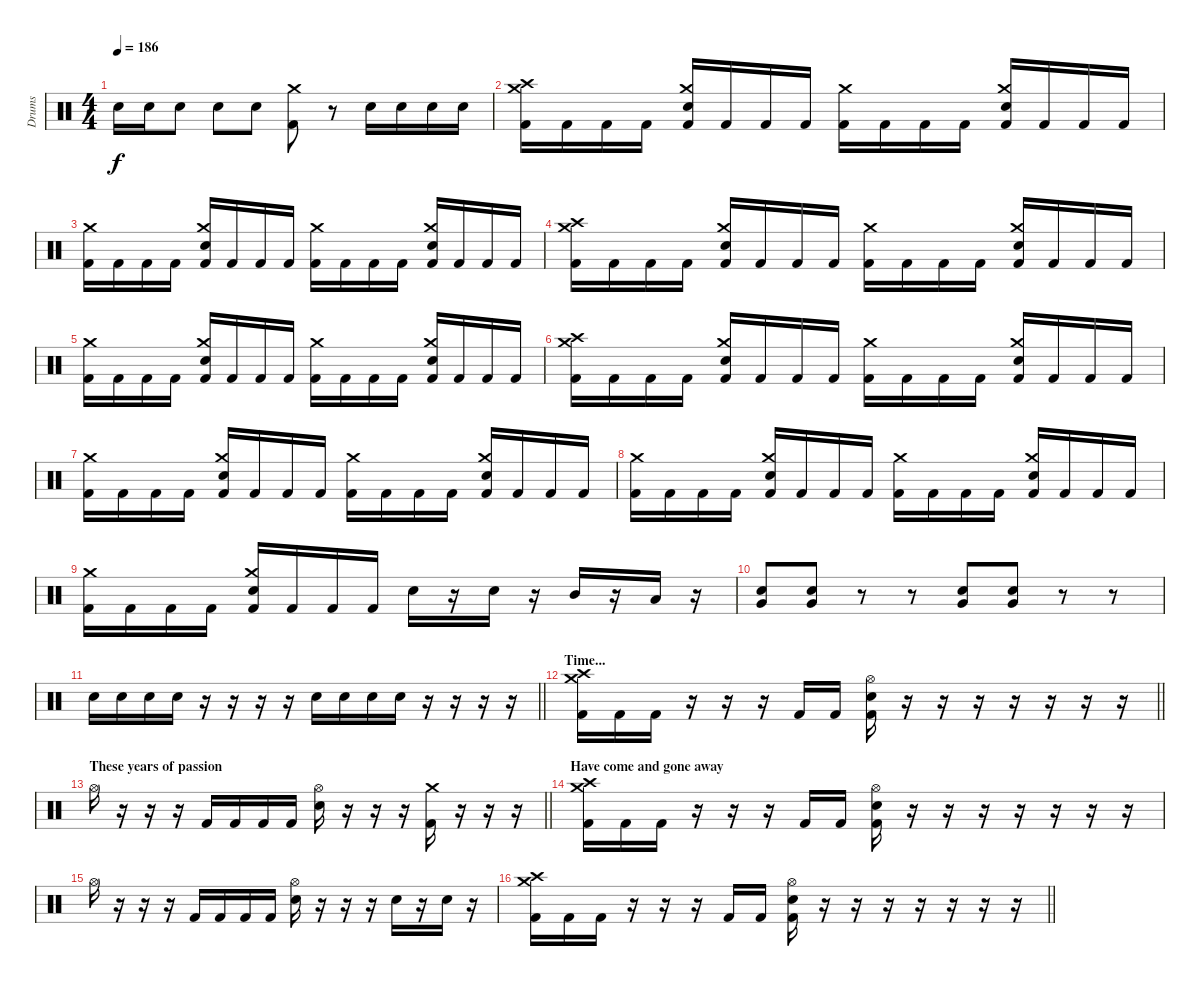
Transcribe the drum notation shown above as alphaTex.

\track ("Drums" "Drums") {instrument percussion}
\staff {score}
\articulation defaults
\ts (4 4)
\tempo 186
\clef neutral
\ks c "Snare (hit) 2".16{dy f} "Snare (hit) 2".16 "Snare (hit) 2".8 "Snare (hit) 2".8 "Snare (hit) 2".8
("Crash medium (hit)" "Kick (hit) 2").8 r.8 "Snare (hit) 2".16 "Snare (hit) 2".16 "Snare (hit) 2".16 "Snare (hit) 2".16 |
("Crash high (hit)" "Crash medium (hit)" "Kick (hit) 2").16 "Kick (hit) 2".16 "Kick (hit) 2".16 "Kick (hit) 2".16 ("Crash medium (hit)" "Snare (hit) 2" "Kick (hit) 2").16 "Kick (hit) 2".16 "Kick (hit) 2".16 "Kick (hit) 2".16 ("Crash medium (hit)" "Kick (hit) 2").16 "Kick (hit) 2".16 "Kick (hit) 2".16 "Kick (hit) 2".16 ("Crash medium (hit)" "Snare (hit) 2" "Kick (hit) 2").16 "Kick (hit) 2".16 "Kick (hit) 2".16 "Kick (hit) 2".16 |
("Crash medium (hit)" "Kick (hit) 2").16 "Kick (hit) 2".16 "Kick (hit) 2".16 "Kick (hit) 2".16 ("Crash medium (hit)" "Snare (hit) 2" "Kick (hit) 2").16 "Kick (hit) 2".16 "Kick (hit) 2".16 "Kick (hit) 2".16 ("Crash medium (hit)" "Kick (hit) 2").16 "Kick (hit) 2".16 "Kick (hit) 2".16 "Kick (hit) 2".16 ("Crash medium (hit)" "Snare (hit) 2" "Kick (hit) 2").16 "Kick (hit) 2".16 "Kick (hit) 2".16 "Kick (hit) 2".16 |
("Crash high (hit)" "Crash medium (hit)" "Kick (hit) 2").16 "Kick (hit) 2".16 "Kick (hit) 2".16 "Kick (hit) 2".16 ("Crash medium (hit)" "Snare (hit) 2" "Kick (hit) 2").16 "Kick (hit) 2".16 "Kick (hit) 2".16 "Kick (hit) 2".16 ("Crash medium (hit)" "Kick (hit) 2").16 "Kick (hit) 2".16 "Kick (hit) 2".16 "Kick (hit) 2".16 ("Crash medium (hit)" "Snare (hit) 2" "Kick (hit) 2").16 "Kick (hit) 2".16 "Kick (hit) 2".16 "Kick (hit) 2".16 |
("Crash medium (hit)" "Kick (hit) 2").16 "Kick (hit) 2".16 "Kick (hit) 2".16 "Kick (hit) 2".16 ("Crash medium (hit)" "Snare (hit) 2" "Kick (hit) 2").16 "Kick (hit) 2".16 "Kick (hit) 2".16 "Kick (hit) 2".16 ("Crash medium (hit)" "Kick (hit) 2").16 "Kick (hit) 2".16 "Kick (hit) 2".16 "Kick (hit) 2".16 ("Crash medium (hit)" "Snare (hit) 2" "Kick (hit) 2").16 "Kick (hit) 2".16 "Kick (hit) 2".16 "Kick (hit) 2".16 |
("Crash high (hit)" "Crash medium (hit)" "Kick (hit) 2").16 "Kick (hit) 2".16 "Kick (hit) 2".16 "Kick (hit) 2".16 ("Crash medium (hit)" "Snare (hit) 2" "Kick (hit) 2").16 "Kick (hit) 2".16 "Kick (hit) 2".16 "Kick (hit) 2".16 ("Crash medium (hit)" "Kick (hit) 2").16 "Kick (hit) 2".16 "Kick (hit) 2".16 "Kick (hit) 2".16 ("Crash medium (hit)" "Snare (hit) 2" "Kick (hit) 2").16 "Kick (hit) 2".16 "Kick (hit) 2".16 "Kick (hit) 2".16 |
("Crash medium (hit)" "Kick (hit) 2").16 "Kick (hit) 2".16 "Kick (hit) 2".16 "Kick (hit) 2".16 ("Crash medium (hit)" "Snare (hit) 2" "Kick (hit) 2").16 "Kick (hit) 2".16 "Kick (hit) 2".16 "Kick (hit) 2".16 ("Crash medium (hit)" "Kick (hit) 2").16 "Kick (hit) 2".16 "Kick (hit) 2".16 "Kick (hit) 2".16 ("Crash medium (hit)" "Snare (hit) 2" "Kick (hit) 2").16 "Kick (hit) 2".16 "Kick (hit) 2".16 "Kick (hit) 2".16 |
("Crash medium (hit)" "Kick (hit) 2").16 "Kick (hit) 2".16 "Kick (hit) 2".16 "Kick (hit) 2".16 ("Crash medium (hit)" "Snare (hit) 2" "Kick (hit) 2").16 "Kick (hit) 2".16 "Kick (hit) 2".16 "Kick (hit) 2".16 ("Crash medium (hit)" "Kick (hit) 2").16 "Kick (hit) 2".16 "Kick (hit) 2".16 "Kick (hit) 2".16 ("Crash medium (hit)" "Snare (hit) 2" "Kick (hit) 2").16 "Kick (hit) 2".16 "Kick (hit) 2".16 "Kick (hit) 2".16 |
("Crash medium (hit)" "Kick (hit) 2").16 "Kick (hit) 2".16 "Kick (hit) 2".16 "Kick (hit) 2".16 ("Crash medium (hit)" "Snare (hit) 2" "Kick (hit) 2").16 "Kick (hit) 2".16 "Kick (hit) 2".16 "Kick (hit) 2".16 "Snare (hit) 2".16 r.16 "Snare (hit) 2".16 r.16 "Mid Tom (hit)".16 r.16 "Low Tom (hit)".16 r.16 |
("Very Low Tom (hit)" "Snare (hit) 2").8 ("Very Low Tom (hit)" "Snare (hit) 2").8 r.8 r.8 ("Very Low Tom (hit)" "Snare (hit) 2").8 ("Very Low Tom (hit)" "Snare (hit) 2").8 r.8 r.8 |
\barLineRight lightlight "Snare (hit) 2".16 "Snare (hit) 2".16 "Snare (hit) 2".16 "Snare (hit) 2".16
r.16 r.16 r.16 r.16 "Snare (hit) 2".16 "Snare (hit) 2".16 "Snare (hit) 2".16 "Snare (hit) 2".16 r.16 r.16 r.16 r.16 |
\section ("" "Time...")
\barLineRight lightlight
("Crash high (hit)" "Crash medium (hit)" "Kick (hit) 2").16 "Kick (hit) 2".16 "Kick (hit) 2".16 r.16 r.16 r.16 "Kick (hit) 2".16 "Kick (hit) 2".16 ("Hi-Hat (open)" "Snare (hit) 2" "Kick (hit) 2").16 r.16 r.16 r.16 r.16 r.16 r.16 r.16 |
\section ("" "These years of passion")
\barLineRight lightlight "Hi-Hat (open)".16
r.16 r.16 r.16 "Kick (hit) 2".16 "Kick (hit) 2".16 "Kick (hit) 2".16 "Kick (hit) 2".16 ("Hi-Hat (open)" "Snare (hit) 2").16 r.16 r.16 r.16 ("Crash medium (hit)" "Kick (hit) 2").16 r.16 r.16 r.16 |
\section ("" "Have come and gone away")
("Crash high (hit)" "Crash medium (hit)" "Kick (hit) 2").16 "Kick (hit) 2".16 "Kick (hit) 2".16 r.16 r.16 r.16 "Kick (hit) 2".16 "Kick (hit) 2".16 ("Hi-Hat (open)" "Snare (hit) 2" "Kick (hit) 2").16 r.16 r.16 r.16 r.16 r.16 r.16 r.16 |
"Hi-Hat (open)".16 r.16 r.16 r.16 "Kick (hit) 2".16 "Kick (hit) 2".16 "Kick (hit) 2".16 "Kick (hit) 2".16 ("Hi-Hat (open)" "Snare (hit) 2").16 r.16 r.16 r.16 "Snare (hit) 2".16 r.16 "Snare (hit) 2".16 r.16 |
\barLineRight lightlight
("Crash high (hit)" "Crash medium (hit)" "Kick (hit) 2").16 "Kick (hit) 2".16 "Kick (hit) 2".16 r.16 r.16 r.16 "Kick (hit) 2".16 "Kick (hit) 2".16 ("Hi-Hat (open)" "Snare (hit) 2" "Kick (hit) 2").16 r.16 r.16 r.16 r.16 r.16 r.16 r.16
